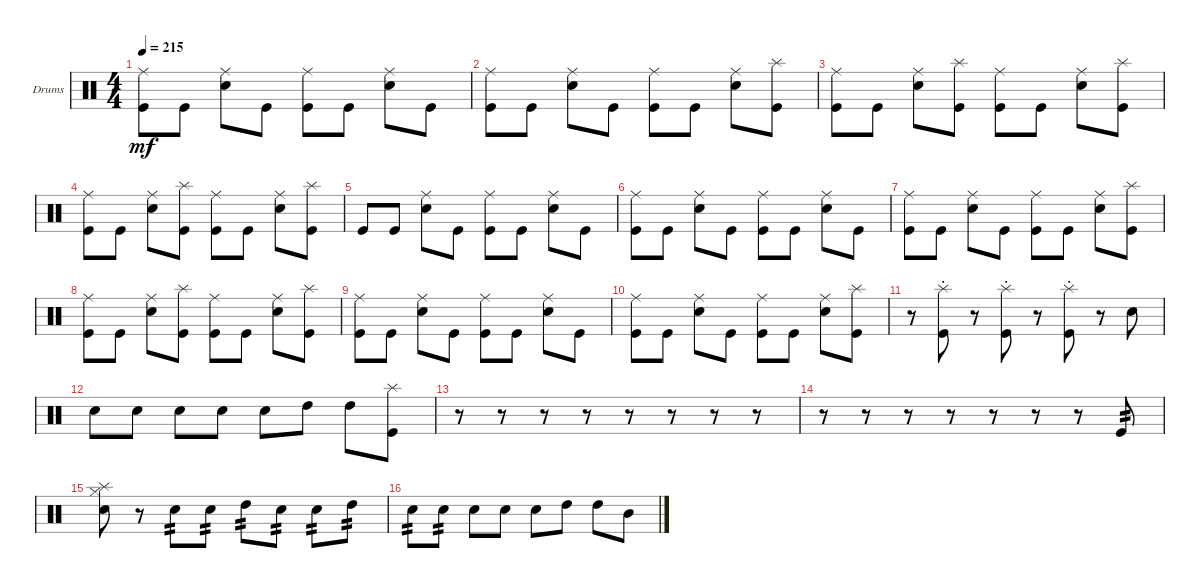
\bracketExtendMode groupsimilarinstruments
\firstSystemTrackNameOrientation horizontal
\otherSystemsTrackNameOrientation horizontal
\track ("Drumkit" "Drums") {instrument percussion}
\staff {score}
\articulation defaults
\ts (4 4)
\tempo 215
\clef neutral
\ks c
("Kick (hit)" "Ride (middle)").8{dy mf} "Kick (hit)".8 ("Snare (hit) 2" "Ride (middle)").8 "Kick (hit)".8 ("Kick (hit)" "Ride (middle)").8 "Kick (hit)".8 ("Snare (hit) 2" "Ride (middle)").8 "Kick (hit)".8 |
("Kick (hit)" "Ride (middle)").8 "Kick (hit)".8 ("Snare (hit) 2" "Ride (middle)").8 "Kick (hit)".8 ("Kick (hit)" "Ride (middle)").8 "Kick (hit)".8 ("Snare (hit) 2" "Ride (middle)").8 ("Kick (hit)" "Splash (hit)").8 |
("Kick (hit)" "Ride (middle)").8 "Kick (hit)".8 ("Snare (hit) 2" "Ride (middle)").8 ("Kick (hit)" "Splash (hit)").8 ("Kick (hit)" "Ride (middle)").8 "Kick (hit)".8 ("Snare (hit) 2" "Ride (middle)").8 ("Kick (hit)" "Splash (hit)").8 |
("Kick (hit)" "Ride (middle)").8 "Kick (hit)".8 ("Snare (hit) 2" "Ride (middle)").8 ("Kick (hit)" "Splash (hit)").8 ("Kick (hit)" "Ride (middle)").8 "Kick (hit)".8 ("Snare (hit) 2" "Ride (middle)").8 ("Kick (hit)" "Splash (hit)").8 |
"Kick (hit)".8 "Kick (hit)".8 ("Snare (hit) 2" "Ride (middle)").8 "Kick (hit)".8 ("Kick (hit)" "Ride (middle)").8 "Kick (hit)".8 ("Snare (hit) 2" "Ride (middle)").8 "Kick (hit)".8 |
("Kick (hit)" "Ride (middle)").8 "Kick (hit)".8 ("Snare (hit) 2" "Ride (middle)").8 "Kick (hit)".8 ("Kick (hit)" "Ride (middle)").8 "Kick (hit)".8 ("Snare (hit) 2" "Ride (middle)").8 "Kick (hit)".8 |
("Kick (hit)" "Ride (middle)").8 "Kick (hit)".8 ("Snare (hit) 2" "Ride (middle)").8 "Kick (hit)".8 ("Kick (hit)" "Ride (middle)").8 "Kick (hit)".8 ("Snare (hit) 2" "Ride (middle)").8 ("Kick (hit)" "Splash (hit)").8 |
("Kick (hit)" "Ride (middle)").8 "Kick (hit)".8 ("Snare (hit) 2" "Ride (middle)").8 ("Kick (hit)" "Splash (hit)").8 ("Kick (hit)" "Ride (middle)").8 "Kick (hit)".8 ("Snare (hit) 2" "Ride (middle)").8 ("Kick (hit)" "Splash (hit)").8 |
("Kick (hit)" "Ride (middle)").8 "Kick (hit)".8 ("Snare (hit) 2" "Ride (middle)").8 "Kick (hit)".8 ("Kick (hit)" "Ride (middle)").8 "Kick (hit)".8 ("Snare (hit) 2" "Ride (middle)").8 "Kick (hit)".8 |
("Kick (hit)" "Ride (middle)").8 "Kick (hit)".8 ("Snare (hit) 2" "Ride (middle)").8 "Kick (hit)".8 ("Kick (hit)" "Ride (middle)").8 "Kick (hit)".8 ("Snare (hit) 2" "Ride (middle)").8 ("Kick (hit)" "Splash (hit)").8 |
r.8 ("Kick (hit)" "Splash (hit)"{st}).8 r.8 ("Kick (hit)" "Splash (hit)"{st}).8 r.8 ("Kick (hit)" "Splash (hit)"{st}).8 r.8 "Snare (hit) 2".8 |
"Snare (hit) 2".8 "Snare (hit) 2".8 "Snare (hit) 2".8 "Snare (hit) 2".8 "Snare (hit) 2".8 "High Tom (hit)".8 "High Tom (hit)".8 ("Kick (hit)" "Splash (hit)").8 |
r.8 r.8 r.8 r.8 r.8 r.8 r.8 r.8 |
r.8 r.8 r.8 r.8 r.8 r.8 r.8 "Kick (hit)".8{tp 2} |
("Snare (hit) 2" "Hi-Hat (closed)" "Splash (hit)").8 r.8 "Snare (hit) 2".8{tp 2} "Snare (hit) 2".8{tp 2} "High Tom (hit)".8{tp 2} "Snare (hit) 2".8{tp 2} "Snare (hit) 2".8{tp 2} "High Tom (hit)".8{tp 2} |
"Snare (hit) 2".8{tp 2} "Snare (hit) 2".8{tp 2} "Snare (hit) 2".8 "Snare (hit) 2".8 "Snare (hit) 2".8 "High Tom (hit)".8 "High Tom (hit)".8 "Mid Tom (hit)".8
